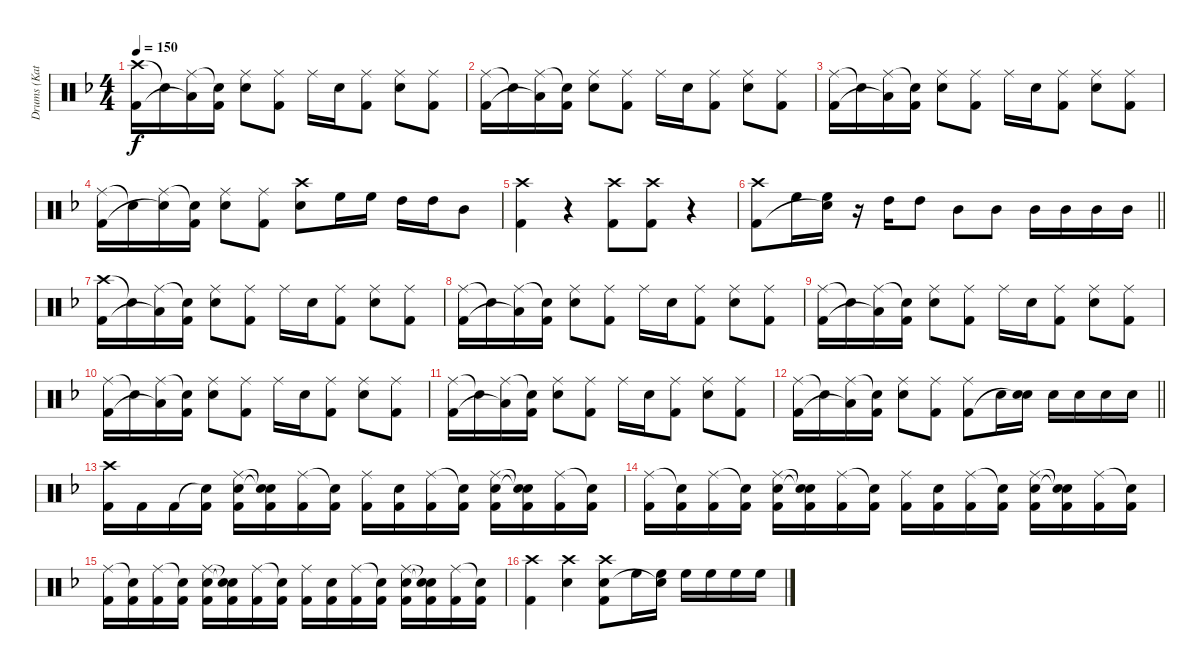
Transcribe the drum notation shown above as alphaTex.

\track ("Drums (Katsuji)" "Drums (Kat") {instrument percussion}
\staff {score}
\articulation defaults
\ts (4 4)
\tempo 150
\clef neutral
\ks f
("Crash high (hit)" "Kick (hit) 2").16{dy f} "Snare (hit)"{t}.16 ("Ride (middle)" "Low Floor Tom (hit)"{t}).16 ("Snare (hit)"{t} "Kick (hit) 2").16 ("Ride (middle)" "Snare (hit) 2").8 ("Ride (middle)" "Kick (hit) 2").8 "Ride (middle)".16 "Snare (hit) 2".16 ("Ride (middle)" "Kick (hit) 2").8 ("Ride (middle)" "Snare (hit) 2").8 ("Ride (middle)" "Kick (hit) 2").8 |
("Ride (middle)" "Kick (hit) 2").16 "Snare (hit)"{t}.16 ("Ride (middle)" "Low Floor Tom (hit)"{t}).16 ("Snare (hit)"{t} "Kick (hit) 2").16 ("Ride (middle)" "Snare (hit) 2").8 ("Ride (middle)" "Kick (hit) 2").8 "Ride (middle)".16 "Snare (hit) 2".16 ("Ride (middle)" "Kick (hit) 2").8 ("Ride (middle)" "Snare (hit) 2").8 ("Ride (middle)" "Kick (hit) 2").8 |
("Ride (middle)" "Kick (hit) 2").16 "Snare (hit)"{t}.16 ("Ride (middle)" "Low Floor Tom (hit)"{t}).16 ("Snare (hit)"{t} "Kick (hit) 2").16 ("Ride (middle)" "Snare (hit) 2").8 ("Ride (middle)" "Kick (hit) 2").8 "Ride (middle)".16 "Snare (hit) 2".16 ("Ride (middle)" "Kick (hit) 2").8 ("Ride (middle)" "Snare (hit) 2").8 ("Ride (middle)" "Kick (hit) 2").8 |
("Ride (middle)" "Kick (hit) 2").16 "Snare (hit)"{t}.16 ("Ride (middle)" "Snare (hit)"{t}).16 ("Snare (hit)"{t} "Kick (hit) 2").16 ("Ride (middle)" "Snare (hit) 2").8 ("Ride (middle)" "Kick (hit) 2").8 ("Crash high (hit)" "Snare (hit) 2").8 "High Floor Tom (hit)".16 "High Floor Tom (hit)".16 "High Tom (hit)".16 "High Tom (hit)".16 "Mid Tom (hit)".8 |
("Crash high (hit)" "Kick (hit) 2").4 r.4 ("Crash high (hit)" "Kick (hit) 2").8 ("Crash high (hit)" "Kick (hit) 2").8 r.4 |
\barLineRight lightlight
("Crash high (hit)" "Kick (hit) 2").8 "High Floor Tom (hit)".16 ("High Floor Tom (hit)" "Snare (hit)"{t}).16 r.16 "High Tom (hit)".16 "High Tom (hit)".8 "Mid Tom (hit)".8 "Mid Tom (hit)".8 "Mid Tom (hit)".16 "Mid Tom (hit)".16 "Mid Tom (hit)".16 "Mid Tom (hit)".16 |
("Crash high (hit)" "Kick (hit) 2").16 "Snare (hit)"{t}.16 ("Ride (middle)" "Low Floor Tom (hit)"{t}).16 ("Snare (hit)"{t} "Kick (hit) 2").16 ("Ride (middle)" "Snare (hit) 2").8 ("Ride (middle)" "Kick (hit) 2").8 "Ride (middle)".16 "Snare (hit) 2".16 ("Ride (middle)" "Kick (hit) 2").8 ("Ride (middle)" "Snare (hit) 2").8 ("Ride (middle)" "Kick (hit) 2").8 |
("Ride (middle)" "Kick (hit) 2").16 "Snare (hit)"{t}.16 ("Ride (middle)" "Low Floor Tom (hit)"{t}).16 ("Snare (hit)"{t} "Kick (hit) 2").16 ("Ride (middle)" "Snare (hit) 2").8 ("Ride (middle)" "Kick (hit) 2").8 "Ride (middle)".16 "Snare (hit) 2".16 ("Ride (middle)" "Kick (hit) 2").8 ("Ride (middle)" "Snare (hit) 2").8 ("Ride (middle)" "Kick (hit) 2").8 |
("Ride (middle)" "Kick (hit) 2").16 "Snare (hit)"{t}.16 ("Ride (middle)" "Low Floor Tom (hit)"{t}).16 ("Snare (hit)"{t} "Kick (hit) 2").16 ("Ride (middle)" "Snare (hit) 2").8 ("Ride (middle)" "Kick (hit) 2").8 "Ride (middle)".16 "Snare (hit) 2".16 ("Ride (middle)" "Kick (hit) 2").8 ("Ride (middle)" "Snare (hit) 2").8 ("Ride (middle)" "Kick (hit) 2").8 |
("Ride (middle)" "Kick (hit) 2").16 "Snare (hit)"{t}.16 ("Ride (middle)" "Low Floor Tom (hit)"{t}).16 ("Snare (hit)"{t} "Kick (hit) 2").16 ("Ride (middle)" "Snare (hit) 2").8 ("Ride (middle)" "Kick (hit) 2").8 "Ride (middle)".16 "Snare (hit) 2".16 ("Ride (middle)" "Kick (hit) 2").8 ("Ride (middle)" "Snare (hit) 2").8 ("Ride (middle)" "Kick (hit) 2").8 |
("Ride (middle)" "Kick (hit) 2").16 "Snare (hit)"{t}.16 ("Ride (middle)" "Low Floor Tom (hit)"{t}).16 ("Snare (hit)"{t} "Kick (hit) 2").16 ("Ride (middle)" "Snare (hit) 2").8 ("Ride (middle)" "Kick (hit) 2").8 "Ride (middle)".16 "Snare (hit) 2".16 ("Ride (middle)" "Kick (hit) 2").8 ("Ride (middle)" "Snare (hit) 2").8 ("Ride (middle)" "Kick (hit) 2").8 |
\barLineRight lightlight
("Ride (middle)" "Kick (hit) 2").16 "Snare (hit)"{t}.16 ("Ride (middle)" "Low Floor Tom (hit)"{t}).16 ("Snare (hit)"{t} "Kick (hit) 2").16 ("Ride (middle)" "Snare (hit) 2").8 ("Ride (middle)" "Kick (hit) 2").8 ("Ride (middle)" "Kick (hit) 2").8 "Snare (hit) 2".16 ("Snare (hit) 2" "Snare (hit)"{t}).16 "Snare (hit) 2".16 "Snare (hit) 2".16 "Snare (hit) 2".16 "Snare (hit) 2".16 |
("Crash high (hit)" "Kick (hit) 2").16 "Kick (hit) 2".16 "Kick (hit) 2".16 ("Snare (hit)"{t} "Kick (hit) 2").16 ("Ride (middle)" "Snare (hit) 2" "Kick (hit) 2").16 ("Snare (hit)"{t} "Snare (hit)"{t} "Kick (hit) 2").16 ("Ride (middle)" "Kick (hit) 2").16 ("Snare (hit)"{t} "Kick (hit) 2").16 ("Ride (middle)" "Kick (hit) 2").16 ("Snare (hit) 2" "Kick (hit) 2").16 ("Ride (middle)" "Kick (hit) 2").16 ("Snare (hit)"{t} "Kick (hit) 2").16 ("Ride (middle)" "Snare (hit) 2" "Kick (hit) 2").16 ("Snare (hit)"{t} "Snare (hit)"{t} "Kick (hit) 2").16 ("Ride (middle)" "Kick (hit) 2").16 ("Snare (hit)"{t} "Kick (hit) 2").16 |
("Ride (middle)" "Kick (hit) 2").16 ("Snare (hit)"{t} "Kick (hit) 2").16 ("Ride (middle)" "Kick (hit) 2").16 ("Snare (hit)"{t} "Kick (hit) 2").16 ("Ride (middle)" "Snare (hit) 2" "Kick (hit) 2").16 ("Snare (hit)"{t} "Snare (hit)"{t} "Kick (hit) 2").16 ("Ride (middle)" "Kick (hit) 2").16 ("Snare (hit)"{t} "Kick (hit) 2").16 ("Ride (middle)" "Kick (hit) 2").16 ("Snare (hit) 2" "Kick (hit) 2").16 ("Ride (middle)" "Kick (hit) 2").16 ("Snare (hit)"{t} "Kick (hit) 2").16 ("Ride (middle)" "Snare (hit) 2" "Kick (hit) 2").16 ("Snare (hit)"{t} "Snare (hit)"{t} "Kick (hit) 2").16 ("Ride (middle)" "Kick (hit) 2").16 ("Snare (hit)"{t} "Kick (hit) 2").16 |
("Ride (middle)" "Kick (hit) 2").16 ("Snare (hit)"{t} "Kick (hit) 2").16 ("Ride (middle)" "Kick (hit) 2").16 ("Snare (hit)"{t} "Kick (hit) 2").16 ("Ride (middle)" "Snare (hit) 2" "Kick (hit) 2").16 ("Snare (hit)"{t} "Snare (hit)"{t} "Kick (hit) 2").16 ("Ride (middle)" "Kick (hit) 2").16 ("Snare (hit)"{t} "Kick (hit) 2").16 ("Ride (middle)" "Kick (hit) 2").16 ("Snare (hit) 2" "Kick (hit) 2").16 ("Ride (middle)" "Kick (hit) 2").16 ("Snare (hit)"{t} "Kick (hit) 2").16 ("Ride (middle)" "Snare (hit) 2" "Kick (hit) 2").16 ("Snare (hit)"{t} "Snare (hit)"{t} "Kick (hit) 2").16 ("Ride (middle)" "Kick (hit) 2").16 ("Snare (hit)"{t} "Kick (hit) 2").16 |
("Crash high (hit)" "Kick (hit) 2").4 ("Crash high (hit)" "Snare (hit) 2").4 ("Crash high (hit)" "Snare (hit) 2" "Kick (hit) 2").8 "High Floor Tom (hit)".16 ("High Floor Tom (hit)" "Snare (hit)"{t}).16 "High Floor Tom (hit)".16 "High Floor Tom (hit)".16 "High Floor Tom (hit)".16 "High Floor Tom (hit)".16
